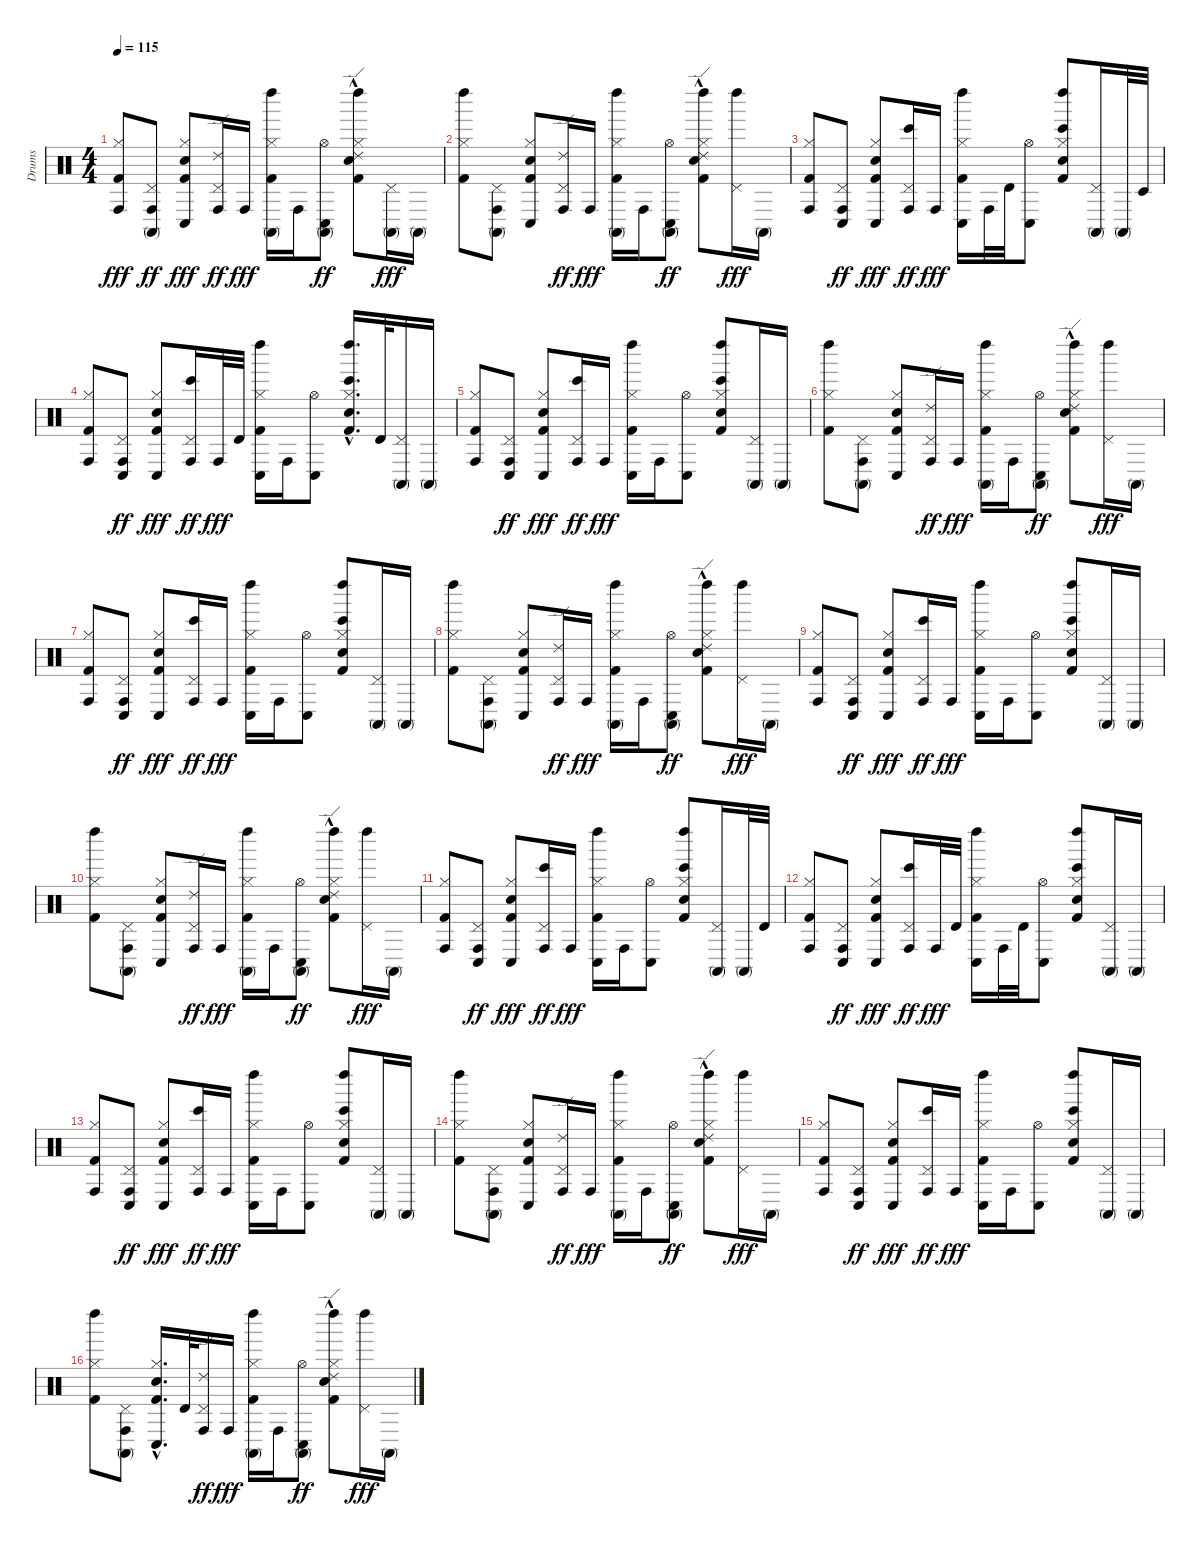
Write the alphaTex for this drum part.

\track ("Drums" "Drums") {instrument percussion}
\staff {score}
\articulation defaults
\ts (4 4)
\tempo 115
\clef neutral
\ks c
("Conga high (hit)" "Hi-Hat (closed)" "Kick (hit) 2").8{dy fff} ("Conga high (mute)" "Conga high (hit)" "Pedal Hi-Hat (hit)").8{dy ff} ("Conga low (hit)" "Hi-Hat (closed)" "Snare (hit) 2" "Kick (hit) 2").8{dy fff} ("Conga high (hit)" "Pedal Hi-Hat (hit)" "Ride (edge) 2").16{dy ff} "Conga high (hit)".16{dy fff} ("Conga high (mute)" "Left Maraca (hit)" "Hi-Hat (closed)" "Kick (hit) 2").16 "Conga high (hit)".16 ("Conga low (hit)" "Hi-Hat (open)" "Conga high (mute)").8{dy ff} ("Left Maraca (hit)" "Hi-Hat (closed)" "Snare (hit) 2" "Kick (hit) 2" "Ride (edge) 2"{hac}).8 ("Conga high (mute)" "Pedal Hi-Hat (hit)").16{dy fff} "Conga high (mute)".16 |
("Left Maraca (hit)" "Hi-Hat (closed)" "Kick (hit) 2").8 ("Conga high (mute)" "Conga high (hit)" "Pedal Hi-Hat (hit)").8 ("Conga low (hit)" "Hi-Hat (closed)" "Snare (hit) 2" "Kick (hit) 2").8 ("Conga high (hit)" "Pedal Hi-Hat (hit)" "Ride (edge) 2").16{dy ff} "Conga high (hit)".16{dy fff} ("Conga high (mute)" "Left Maraca (hit)" "Hi-Hat (closed)" "Kick (hit) 2").16 "Conga high (hit)".16 ("Conga low (hit)" "Hi-Hat (open)" "Conga high (mute)").8{dy ff} ("Left Maraca (hit)" "Hi-Hat (closed)" "Snare (hit) 2" "Kick (hit) 2" "Ride (edge) 2"{hac}).8 ("Left Maraca (hit)" "Pedal Hi-Hat (hit)").16{dy fff} "Conga high (mute)".16 |
("Conga high (hit)" "Hi-Hat (closed)" "Kick (hit) 2").8 ("Conga high (hit)" "Pedal Hi-Hat (hit)" "Conga low (hit)").8{dy ff} ("Conga low (hit)" "Hi-Hat (closed)" "Snare (hit) 2" "Kick (hit) 2").8{dy fff} ("Bongo High (hit)" "Conga high (hit)" "Pedal Hi-Hat (hit)").16{dy ff} "Conga high (hit)".16{dy fff} ("Conga low (hit)" "Left Maraca (hit)" "Hi-Hat (closed)" "Kick (hit) 2").16 "Conga high (hit)".32 "Timbale high (hit)".32 ("Conga low (hit)" "Hi-Hat (open)").8 ("Bongo High (hit)" "Left Maraca (hit)" "Hi-Hat (closed)" "Snare (hit) 2" "Kick (hit) 2").8 ("Conga high (mute)" "Pedal Hi-Hat (hit)").16 "Conga high (mute)".32 "Timbale low (hit)".32 |
("Conga high (hit)" "Hi-Hat (closed)" "Kick (hit) 2").8 ("Conga high (hit)" "Pedal Hi-Hat (hit)" "Conga low (hit)").8{dy ff} ("Conga low (hit)" "Hi-Hat (closed)" "Snare (hit) 2" "Kick (hit) 2").8{dy fff} ("Bongo High (hit)" "Conga high (hit)" "Pedal Hi-Hat (hit)").16{dy ff} "Conga high (hit)".32{dy fff} "Timbale high (hit)".32 ("Conga low (hit)" "Left Maraca (hit)" "Hi-Hat (closed)" "Kick (hit) 2").16 "Conga high (hit)".16 ("Conga low (hit)" "Hi-Hat (open)").8 ("Bongo High (hit)" "Left Maraca (hit)"{hac} "Hi-Hat (closed)"{hac} "Snare (hit) 2"{hac} "Kick (hit) 2"{hac}).16{d} "Timbale high (hit)".32 ("Conga high (mute)" "Pedal Hi-Hat (hit)").16 "Conga high (mute)".16 |
("Conga high (hit)" "Hi-Hat (closed)" "Kick (hit) 2").8 ("Conga high (hit)" "Pedal Hi-Hat (hit)" "Conga low (hit)").8{dy ff} ("Conga low (hit)" "Hi-Hat (closed)" "Snare (hit) 2" "Kick (hit) 2").8{dy fff} ("Bongo High (hit)" "Conga high (hit)" "Pedal Hi-Hat (hit)").16{dy ff} "Conga high (hit)".16{dy fff} ("Conga low (hit)" "Left Maraca (hit)" "Hi-Hat (closed)" "Kick (hit) 2").16 "Conga high (hit)".16 ("Conga low (hit)" "Hi-Hat (open)").8 ("Bongo High (hit)" "Left Maraca (hit)" "Hi-Hat (closed)" "Snare (hit) 2" "Kick (hit) 2").8 ("Conga high (mute)" "Pedal Hi-Hat (hit)").16 "Conga high (mute)".16 |
("Left Maraca (hit)" "Hi-Hat (closed)" "Kick (hit) 2").8 ("Conga high (mute)" "Conga high (hit)" "Pedal Hi-Hat (hit)").8 ("Conga low (hit)" "Hi-Hat (closed)" "Snare (hit) 2" "Kick (hit) 2").8 ("Conga high (hit)" "Pedal Hi-Hat (hit)" "Ride (edge) 2").16{dy ff} "Conga high (hit)".16{dy fff} ("Conga high (mute)" "Left Maraca (hit)" "Hi-Hat (closed)" "Kick (hit) 2").16 "Conga high (hit)".16 ("Conga low (hit)" "Hi-Hat (open)" "Conga high (mute)").8{dy ff} ("Left Maraca (hit)" "Hi-Hat (closed)" "Snare (hit) 2" "Kick (hit) 2" "Ride (edge) 2"{hac}).8 ("Left Maraca (hit)" "Pedal Hi-Hat (hit)").16{dy fff} "Conga high (mute)".16 |
("Conga high (hit)" "Hi-Hat (closed)" "Kick (hit) 2").8 ("Conga high (hit)" "Pedal Hi-Hat (hit)" "Conga low (hit)").8{dy ff} ("Conga low (hit)" "Hi-Hat (closed)" "Snare (hit) 2" "Kick (hit) 2").8{dy fff} ("Bongo High (hit)" "Conga high (hit)" "Pedal Hi-Hat (hit)").16{dy ff} "Conga high (hit)".16{dy fff} ("Conga low (hit)" "Left Maraca (hit)" "Hi-Hat (closed)" "Kick (hit) 2").16 "Conga high (hit)".16 ("Conga low (hit)" "Hi-Hat (open)").8 ("Bongo High (hit)" "Left Maraca (hit)" "Hi-Hat (closed)" "Snare (hit) 2" "Kick (hit) 2").8 ("Conga high (mute)" "Pedal Hi-Hat (hit)").16 "Conga high (mute)".16 |
("Left Maraca (hit)" "Hi-Hat (closed)" "Kick (hit) 2").8 ("Conga high (mute)" "Conga high (hit)" "Pedal Hi-Hat (hit)").8 ("Conga low (hit)" "Hi-Hat (closed)" "Snare (hit) 2" "Kick (hit) 2").8 ("Conga high (hit)" "Pedal Hi-Hat (hit)" "Ride (edge) 2").16{dy ff} "Conga high (hit)".16{dy fff} ("Conga high (mute)" "Left Maraca (hit)" "Hi-Hat (closed)" "Kick (hit) 2").16 "Conga high (hit)".16 ("Conga low (hit)" "Hi-Hat (open)" "Conga high (mute)").8{dy ff} ("Left Maraca (hit)" "Hi-Hat (closed)" "Snare (hit) 2" "Kick (hit) 2" "Ride (edge) 2"{hac}).8 ("Left Maraca (hit)" "Pedal Hi-Hat (hit)").16{dy fff} "Conga high (mute)".16 |
("Conga high (hit)" "Hi-Hat (closed)" "Kick (hit) 2").8 ("Conga high (hit)" "Pedal Hi-Hat (hit)" "Conga low (hit)").8{dy ff} ("Conga low (hit)" "Hi-Hat (closed)" "Snare (hit) 2" "Kick (hit) 2").8{dy fff} ("Bongo High (hit)" "Conga high (hit)" "Pedal Hi-Hat (hit)").16{dy ff} "Conga high (hit)".16{dy fff} ("Conga low (hit)" "Left Maraca (hit)" "Hi-Hat (closed)" "Kick (hit) 2").16 "Conga high (hit)".16 ("Conga low (hit)" "Hi-Hat (open)").8 ("Bongo High (hit)" "Left Maraca (hit)" "Hi-Hat (closed)" "Snare (hit) 2" "Kick (hit) 2").8 ("Conga high (mute)" "Pedal Hi-Hat (hit)").16 "Conga high (mute)".16 |
("Left Maraca (hit)" "Hi-Hat (closed)" "Kick (hit) 2").8 ("Conga high (mute)" "Conga high (hit)" "Pedal Hi-Hat (hit)").8 ("Conga low (hit)" "Hi-Hat (closed)" "Snare (hit) 2" "Kick (hit) 2").8 ("Conga high (hit)" "Pedal Hi-Hat (hit)" "Ride (edge) 2").16{dy ff} "Conga high (hit)".16{dy fff} ("Conga high (mute)" "Left Maraca (hit)" "Hi-Hat (closed)" "Kick (hit) 2").16 "Conga high (hit)".16 ("Conga low (hit)" "Hi-Hat (open)" "Conga high (mute)").8{dy ff} ("Left Maraca (hit)" "Hi-Hat (closed)" "Snare (hit) 2" "Kick (hit) 2" "Ride (edge) 2"{hac}).8 ("Left Maraca (hit)" "Pedal Hi-Hat (hit)").16{dy fff} "Conga high (mute)".16 |
("Conga high (hit)" "Hi-Hat (closed)" "Kick (hit) 2").8 ("Conga high (hit)" "Pedal Hi-Hat (hit)" "Conga low (hit)").8{dy ff} ("Conga low (hit)" "Hi-Hat (closed)" "Snare (hit) 2" "Kick (hit) 2").8{dy fff} ("Bongo High (hit)" "Conga high (hit)" "Pedal Hi-Hat (hit)").16{dy ff} "Conga high (hit)".16{dy fff} ("Conga low (hit)" "Left Maraca (hit)" "Hi-Hat (closed)" "Kick (hit) 2").16 "Conga high (hit)".16 ("Conga low (hit)" "Hi-Hat (open)").8 ("Bongo High (hit)" "Left Maraca (hit)" "Hi-Hat (closed)" "Snare (hit) 2" "Kick (hit) 2").8 ("Conga high (mute)" "Pedal Hi-Hat (hit)").16 "Conga high (mute)".32 "Timbale high (hit)".32 |
("Conga high (hit)" "Hi-Hat (closed)" "Kick (hit) 2").8 ("Conga high (hit)" "Pedal Hi-Hat (hit)" "Conga low (hit)").8{dy ff} ("Conga low (hit)" "Hi-Hat (closed)" "Snare (hit) 2" "Kick (hit) 2").8{dy fff} ("Bongo High (hit)" "Conga high (hit)" "Pedal Hi-Hat (hit)").16{dy ff} "Conga high (hit)".32{dy fff} "Timbale high (hit)".32 ("Conga low (hit)" "Left Maraca (hit)" "Hi-Hat (closed)" "Kick (hit) 2").16 "Conga high (hit)".32 "Timbale high (hit)".32 ("Conga low (hit)" "Hi-Hat (open)").8 ("Bongo High (hit)" "Left Maraca (hit)" "Hi-Hat (closed)" "Snare (hit) 2" "Kick (hit) 2").8 ("Conga high (mute)" "Pedal Hi-Hat (hit)").16 "Conga high (mute)".16 |
("Conga high (hit)" "Hi-Hat (closed)" "Kick (hit) 2").8 ("Conga high (hit)" "Pedal Hi-Hat (hit)" "Conga low (hit)").8{dy ff} ("Conga low (hit)" "Hi-Hat (closed)" "Snare (hit) 2" "Kick (hit) 2").8{dy fff} ("Bongo High (hit)" "Conga high (hit)" "Pedal Hi-Hat (hit)").16{dy ff} "Conga high (hit)".16{dy fff} ("Conga low (hit)" "Left Maraca (hit)" "Hi-Hat (closed)" "Kick (hit) 2").16 "Conga high (hit)".16 ("Conga low (hit)" "Hi-Hat (open)").8 ("Bongo High (hit)" "Left Maraca (hit)" "Hi-Hat (closed)" "Snare (hit) 2" "Kick (hit) 2").8 ("Conga high (mute)" "Pedal Hi-Hat (hit)").16 "Conga high (mute)".16 |
("Left Maraca (hit)" "Hi-Hat (closed)" "Kick (hit) 2").8 ("Conga high (mute)" "Conga high (hit)" "Pedal Hi-Hat (hit)").8 ("Conga low (hit)" "Hi-Hat (closed)" "Snare (hit) 2" "Kick (hit) 2").8 ("Conga high (hit)" "Pedal Hi-Hat (hit)" "Ride (edge) 2").16{dy ff} "Conga high (hit)".16{dy fff} ("Conga high (mute)" "Left Maraca (hit)" "Hi-Hat (closed)" "Kick (hit) 2").16 "Conga high (hit)".16 ("Conga low (hit)" "Hi-Hat (open)" "Conga high (mute)").8{dy ff} ("Left Maraca (hit)" "Hi-Hat (closed)" "Snare (hit) 2" "Kick (hit) 2" "Ride (edge) 2"{hac}).8 ("Left Maraca (hit)" "Pedal Hi-Hat (hit)").16{dy fff} "Conga high (mute)".16 |
("Conga high (hit)" "Hi-Hat (closed)" "Kick (hit) 2").8 ("Conga high (hit)" "Pedal Hi-Hat (hit)" "Conga low (hit)").8{dy ff} ("Conga low (hit)" "Hi-Hat (closed)" "Snare (hit) 2" "Kick (hit) 2").8{dy fff} ("Bongo High (hit)" "Conga high (hit)" "Pedal Hi-Hat (hit)").16{dy ff} "Conga high (hit)".16{dy fff} ("Conga low (hit)" "Left Maraca (hit)" "Hi-Hat (closed)" "Kick (hit) 2").16 "Conga high (hit)".16 ("Conga low (hit)" "Hi-Hat (open)").8 ("Bongo High (hit)" "Left Maraca (hit)" "Hi-Hat (closed)" "Snare (hit) 2" "Kick (hit) 2").8 ("Conga high (mute)" "Pedal Hi-Hat (hit)").16 "Conga high (mute)".16 |
("Left Maraca (hit)" "Hi-Hat (closed)" "Kick (hit) 2").8 ("Conga high (mute)" "Conga high (hit)" "Pedal Hi-Hat (hit)").8 ("Conga low (hit)"{hac} "Hi-Hat (closed)"{hac} "Snare (hit) 2"{hac} "Kick (hit) 2"{hac}).16{d} "Timbale high (hit)".32 ("Conga high (hit)" "Pedal Hi-Hat (hit)" "Ride (edge) 2").16{dy ff} "Conga high (hit)".16{dy fff} ("Conga high (mute)" "Left Maraca (hit)" "Hi-Hat (closed)" "Kick (hit) 2").16 "Conga high (hit)".16 ("Conga low (hit)" "Hi-Hat (open)" "Conga high (mute)").8{dy ff} ("Left Maraca (hit)" "Hi-Hat (closed)" "Snare (hit) 2" "Kick (hit) 2" "Ride (edge) 2"{hac}).8 ("Left Maraca (hit)" "Pedal Hi-Hat (hit)").16{dy fff} "Conga high (mute)".16
